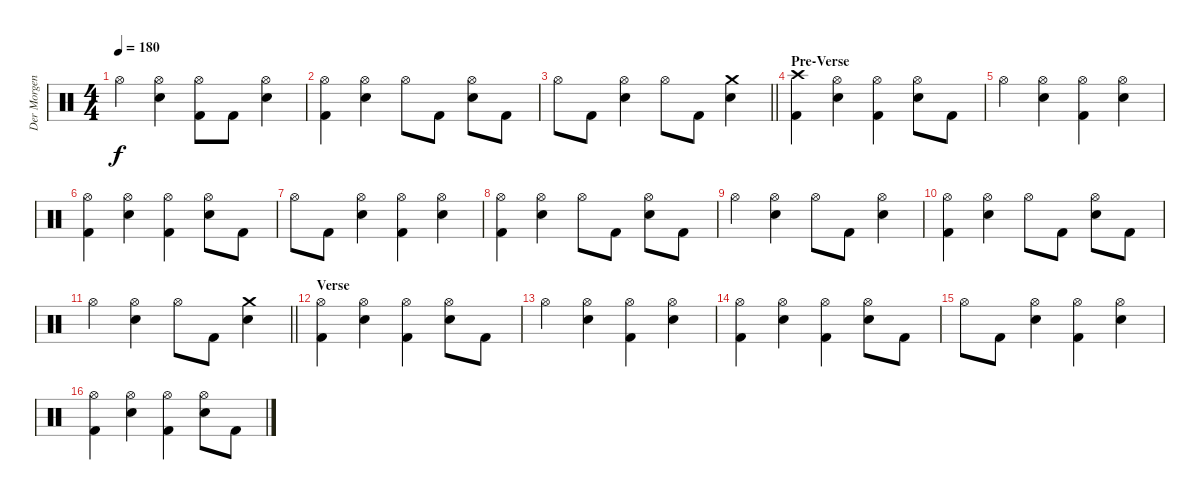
\track ("Der Morgenstern" "Der Morgen") {instrument percussion}
\staff {score}
\articulation defaults
\ts (4 4)
\tempo 180
\clef neutral
\ks c "Hi-Hat (open)".4{dy f}
("Hi-Hat (open)" "Electric Snare (hit)").4 ("Hi-Hat (open)" "Kick (hit) 2").8 "Kick (hit) 2".8 ("Hi-Hat (open)" "Electric Snare (hit)").4 |
("Hi-Hat (open)" "Kick (hit) 2").4 ("Hi-Hat (open)" "Electric Snare (hit)").4 "Hi-Hat (open)".8 "Kick (hit) 2".8 ("Hi-Hat (open)" "Electric Snare (hit)").8 "Kick (hit) 2".8 |
\barLineRight lightlight "Hi-Hat (open)".8 "Kick (hit) 2".8
("Hi-Hat (open)" "Electric Snare (hit)").4 "Hi-Hat (open)".8 "Kick (hit) 2".8 ("Crash medium (hit)" "Electric Snare (hit)").4 |
\section ("" "Pre-Verse")
("Crash high (hit)" "Kick (hit) 2").4 ("Hi-Hat (open)" "Electric Snare (hit)").4 ("Hi-Hat (open)" "Kick (hit) 2").4 ("Hi-Hat (open)" "Electric Snare (hit)").8 "Kick (hit) 2".8 |
"Hi-Hat (open)".4 ("Hi-Hat (open)" "Electric Snare (hit)").4 ("Hi-Hat (open)" "Kick (hit) 2").4 ("Hi-Hat (open)" "Electric Snare (hit)").4 |
("Hi-Hat (open)" "Kick (hit) 2").4 ("Hi-Hat (open)" "Electric Snare (hit)").4 ("Hi-Hat (open)" "Kick (hit) 2").4 ("Hi-Hat (open)" "Electric Snare (hit)").8 "Kick (hit) 2".8 |
"Hi-Hat (open)".8 "Kick (hit) 2".8 ("Hi-Hat (open)" "Electric Snare (hit)").4 ("Hi-Hat (open)" "Kick (hit) 2").4 ("Hi-Hat (open)" "Electric Snare (hit)").4 |
("Hi-Hat (open)" "Kick (hit) 2").4 ("Hi-Hat (open)" "Electric Snare (hit)").4 "Hi-Hat (open)".8 "Kick (hit) 2".8 ("Hi-Hat (open)" "Electric Snare (hit)").8 "Kick (hit) 2".8 |
"Hi-Hat (open)".4 ("Hi-Hat (open)" "Electric Snare (hit)").4 "Hi-Hat (open)".8 "Kick (hit) 2".8 ("Hi-Hat (open)" "Electric Snare (hit)").4 |
("Hi-Hat (open)" "Kick (hit) 2").4 ("Hi-Hat (open)" "Electric Snare (hit)").4 "Hi-Hat (open)".8 "Kick (hit) 2".8 ("Hi-Hat (open)" "Electric Snare (hit)").8 "Kick (hit) 2".8 |
\barLineRight lightlight "Hi-Hat (open)".4
("Hi-Hat (open)" "Electric Snare (hit)").4 "Hi-Hat (open)".8 "Kick (hit) 2".8 ("Crash medium (hit)" "Electric Snare (hit)").4 |
\section ("" "Verse")
("Hi-Hat (open)" "Kick (hit) 2").4 ("Hi-Hat (open)" "Electric Snare (hit)").4 ("Hi-Hat (open)" "Kick (hit) 2").4 ("Hi-Hat (open)" "Electric Snare (hit)").8 "Kick (hit) 2".8 |
"Hi-Hat (open)".4 ("Hi-Hat (open)" "Electric Snare (hit)").4 ("Hi-Hat (open)" "Kick (hit) 2").4 ("Hi-Hat (open)" "Electric Snare (hit)").4 |
("Hi-Hat (open)" "Kick (hit) 2").4 ("Hi-Hat (open)" "Electric Snare (hit)").4 ("Hi-Hat (open)" "Kick (hit) 2").4 ("Hi-Hat (open)" "Electric Snare (hit)").8 "Kick (hit) 2".8 |
"Hi-Hat (open)".8 "Kick (hit) 2".8 ("Hi-Hat (open)" "Electric Snare (hit)").4 ("Hi-Hat (open)" "Kick (hit) 2").4 ("Hi-Hat (open)" "Electric Snare (hit)").4 |
("Hi-Hat (open)" "Kick (hit) 2").4 ("Hi-Hat (open)" "Electric Snare (hit)").4 ("Hi-Hat (open)" "Kick (hit) 2").4 ("Hi-Hat (open)" "Electric Snare (hit)").8 "Kick (hit) 2".8
